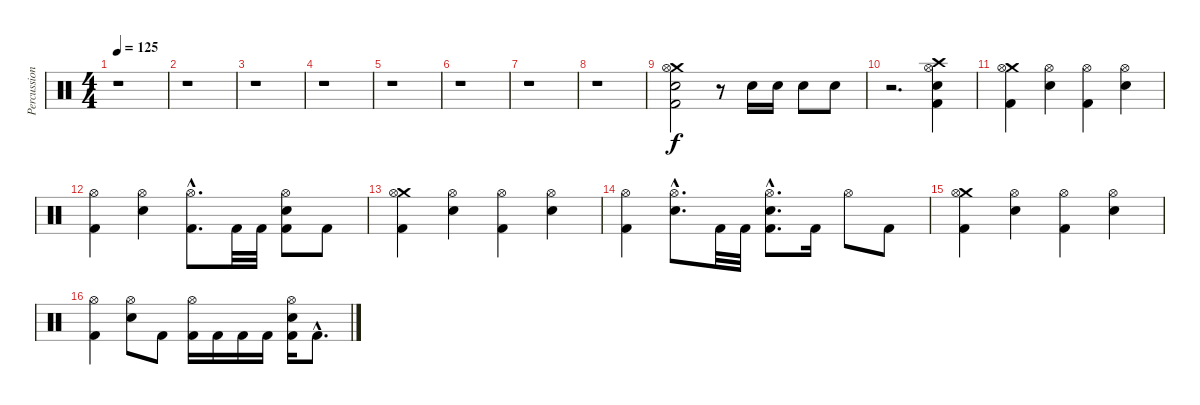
\track ("Percussion" "Percussion") {instrument percussion}
\staff {score}
\articulation defaults
\ts (4 4)
\tempo 125
\clef neutral
\ks c
r.1{dy f} |
r.1 |
r.1 |
r.1 |
r.1 |
r.1 |
r.1 |
r.1 |
("Crash medium (hit)" "Hi-Hat (open)" "Electric Snare (hit)" "Kick (hit) 2").2 r.8 "Electric Snare (hit)".16 "Electric Snare (hit)".16 "Electric Snare (hit)".8 "Electric Snare (hit)".8 |
r.2{d} ("Crash high (hit)" "Hi-Hat (open)" "Electric Snare (hit)" "Kick (hit) 2").4 |
("Crash medium (hit)" "Hi-Hat (open)" "Kick (hit) 2").4 ("Hi-Hat (open)" "Electric Snare (hit)").4 ("Hi-Hat (open)" "Kick (hit) 2").4 ("Hi-Hat (open)" "Electric Snare (hit)").4 |
("Hi-Hat (open)" "Kick (hit) 2").4 ("Hi-Hat (open)" "Electric Snare (hit)").4 ("Hi-Hat (open)"{hac} "Kick (hit) 2"{hac}).8{d} "Kick (hit) 2".32 "Kick (hit) 2".32 ("Hi-Hat (open)" "Electric Snare (hit)" "Kick (hit) 2").8 "Kick (hit) 2".8 |
("Crash medium (hit)" "Hi-Hat (open)" "Kick (hit) 2").4 ("Hi-Hat (open)" "Electric Snare (hit)").4 ("Hi-Hat (open)" "Kick (hit) 2").4 ("Hi-Hat (open)" "Electric Snare (hit)").4 |
("Hi-Hat (open)" "Kick (hit) 2").4 ("Hi-Hat (open)"{hac} "Electric Snare (hit)"{hac}).8{d} "Kick (hit) 2".32 "Kick (hit) 2".32 ("Hi-Hat (open)"{hac} "Electric Snare (hit)"{hac} "Kick (hit) 2"{hac}).8{d} "Kick (hit) 2".16 "Hi-Hat (open)".8 "Kick (hit) 2".8 |
("Crash medium (hit)" "Hi-Hat (open)" "Kick (hit) 2").4 ("Hi-Hat (open)" "Electric Snare (hit)").4 ("Hi-Hat (open)" "Kick (hit) 2").4 ("Hi-Hat (open)" "Electric Snare (hit)").4 |
("Hi-Hat (open)" "Kick (hit) 2").4 ("Hi-Hat (open)" "Electric Snare (hit)").8 "Kick (hit) 2".8 ("Hi-Hat (open)" "Kick (hit) 2").16 "Kick (hit) 2".16 "Kick (hit) 2".16 "Kick (hit) 2".16 ("Hi-Hat (open)" "Electric Snare (hit)" "Kick (hit) 2").16 "Kick (hit) 2"{hac}.8{d}
